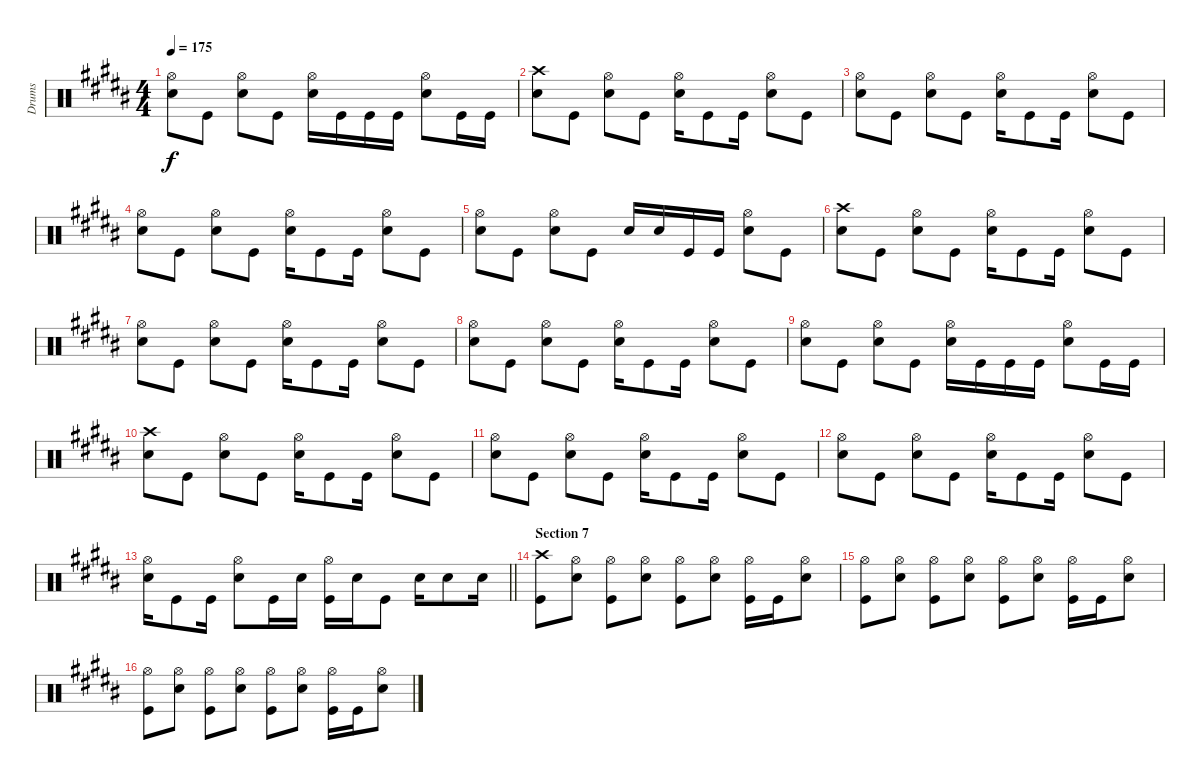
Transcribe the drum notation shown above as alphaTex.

\track ("Drums" "Drums") {instrument percussion}
\staff {score}
\articulation defaults
\ts (4 4)
\tempo 175
\clef neutral
\ks b
("Hi-Hat (open)" "Snare (hit) 2").8{dy f} "Kick (hit)".8 ("Hi-Hat (open)" "Snare (hit) 2").8 "Kick (hit)".8 ("Hi-Hat (open)" "Snare (hit) 2").16 "Kick (hit)".16 "Kick (hit)".16 "Kick (hit)".16 ("Hi-Hat (open)" "Snare (hit) 2").8 "Kick (hit)".16 "Kick (hit)".16 |
("Crash high (hit)" "Snare (hit) 2").8 "Kick (hit)".8 ("Hi-Hat (open)" "Snare (hit) 2").8 "Kick (hit)".8 ("Hi-Hat (open)" "Snare (hit) 2").16 "Kick (hit)".8 "Kick (hit)".16 ("Hi-Hat (open)" "Snare (hit) 2").8 "Kick (hit)".8 |
("Hi-Hat (open)" "Snare (hit) 2").8 "Kick (hit)".8 ("Hi-Hat (open)" "Snare (hit) 2").8 "Kick (hit)".8 ("Hi-Hat (open)" "Snare (hit) 2").16 "Kick (hit)".8 "Kick (hit)".16 ("Hi-Hat (open)" "Snare (hit) 2").8 "Kick (hit)".8 |
("Hi-Hat (open)" "Snare (hit) 2").8 "Kick (hit)".8 ("Hi-Hat (open)" "Snare (hit) 2").8 "Kick (hit)".8 ("Hi-Hat (open)" "Snare (hit) 2").16 "Kick (hit)".8 "Kick (hit)".16 ("Hi-Hat (open)" "Snare (hit) 2").8 "Kick (hit)".8 |
("Hi-Hat (open)" "Snare (hit) 2").8 "Kick (hit)".8 ("Hi-Hat (open)" "Snare (hit) 2").8 "Kick (hit)".8 "Snare (hit) 2".16 "Snare (hit) 2".16 "Kick (hit)".16 "Kick (hit)".16 ("Hi-Hat (open)" "Snare (hit) 2").8 "Kick (hit)".8 |
("Crash high (hit)" "Snare (hit) 2").8 "Kick (hit)".8 ("Hi-Hat (open)" "Snare (hit) 2").8 "Kick (hit)".8 ("Hi-Hat (open)" "Snare (hit) 2").16 "Kick (hit)".8 "Kick (hit)".16 ("Hi-Hat (open)" "Snare (hit) 2").8 "Kick (hit)".8 |
("Hi-Hat (open)" "Snare (hit) 2").8 "Kick (hit)".8 ("Hi-Hat (open)" "Snare (hit) 2").8 "Kick (hit)".8 ("Hi-Hat (open)" "Snare (hit) 2").16 "Kick (hit)".8 "Kick (hit)".16 ("Hi-Hat (open)" "Snare (hit) 2").8 "Kick (hit)".8 |
("Hi-Hat (open)" "Snare (hit) 2").8 "Kick (hit)".8 ("Hi-Hat (open)" "Snare (hit) 2").8 "Kick (hit)".8 ("Hi-Hat (open)" "Snare (hit) 2").16 "Kick (hit)".8 "Kick (hit)".16 ("Hi-Hat (open)" "Snare (hit) 2").8 "Kick (hit)".8 |
("Hi-Hat (open)" "Snare (hit) 2").8 "Kick (hit)".8 ("Hi-Hat (open)" "Snare (hit) 2").8 "Kick (hit)".8 ("Hi-Hat (open)" "Snare (hit) 2").16 "Kick (hit)".16 "Kick (hit)".16 "Kick (hit)".16 ("Hi-Hat (open)" "Snare (hit) 2").8 "Kick (hit)".16 "Kick (hit)".16 |
("Crash high (hit)" "Snare (hit) 2").8 "Kick (hit)".8 ("Hi-Hat (open)" "Snare (hit) 2").8 "Kick (hit)".8 ("Hi-Hat (open)" "Snare (hit) 2").16 "Kick (hit)".8 "Kick (hit)".16 ("Hi-Hat (open)" "Snare (hit) 2").8 "Kick (hit)".8 |
("Hi-Hat (open)" "Snare (hit) 2").8 "Kick (hit)".8 ("Hi-Hat (open)" "Snare (hit) 2").8 "Kick (hit)".8 ("Hi-Hat (open)" "Snare (hit) 2").16 "Kick (hit)".8 "Kick (hit)".16 ("Hi-Hat (open)" "Snare (hit) 2").8 "Kick (hit)".8 |
("Hi-Hat (open)" "Snare (hit) 2").8 "Kick (hit)".8 ("Hi-Hat (open)" "Snare (hit) 2").8 "Kick (hit)".8 ("Hi-Hat (open)" "Snare (hit) 2").16 "Kick (hit)".8 "Kick (hit)".16 ("Hi-Hat (open)" "Snare (hit) 2").8 "Kick (hit)".8 |
\barLineRight lightlight
("Hi-Hat (open)" "Snare (hit) 2").16 "Kick (hit)".8 "Kick (hit)".16 ("Hi-Hat (open)" "Snare (hit) 2").8 "Kick (hit)".16 "Snare (hit) 2".16 ("Hi-Hat (open)" "Kick (hit)").16 "Snare (hit) 2".16 "Kick (hit)".8 "Snare (hit) 2".16 "Snare (hit) 2".8 "Snare (hit) 2".16 |
\section ("" "Section 7")
("Crash high (hit)" "Kick (hit)").8 ("Hi-Hat (open)" "Snare (hit) 2").8 ("Hi-Hat (open)" "Kick (hit)").8 ("Hi-Hat (open)" "Snare (hit) 2").8 ("Hi-Hat (open)" "Kick (hit)").8 ("Hi-Hat (open)" "Snare (hit) 2").8 ("Hi-Hat (open)" "Kick (hit)").16 "Kick (hit)".16 ("Hi-Hat (open)" "Snare (hit) 2").8 |
("Hi-Hat (open)" "Kick (hit)").8 ("Hi-Hat (open)" "Snare (hit) 2").8 ("Hi-Hat (open)" "Kick (hit)").8 ("Hi-Hat (open)" "Snare (hit) 2").8 ("Hi-Hat (open)" "Kick (hit)").8 ("Hi-Hat (open)" "Snare (hit) 2").8 ("Hi-Hat (open)" "Kick (hit)").16 "Kick (hit)".16 ("Hi-Hat (open)" "Snare (hit) 2").8 |
("Hi-Hat (open)" "Kick (hit)").8 ("Hi-Hat (open)" "Snare (hit) 2").8 ("Hi-Hat (open)" "Kick (hit)").8 ("Hi-Hat (open)" "Snare (hit) 2").8 ("Hi-Hat (open)" "Kick (hit)").8 ("Hi-Hat (open)" "Snare (hit) 2").8 ("Hi-Hat (open)" "Kick (hit)").16 "Kick (hit)".16 ("Hi-Hat (open)" "Snare (hit) 2").8
